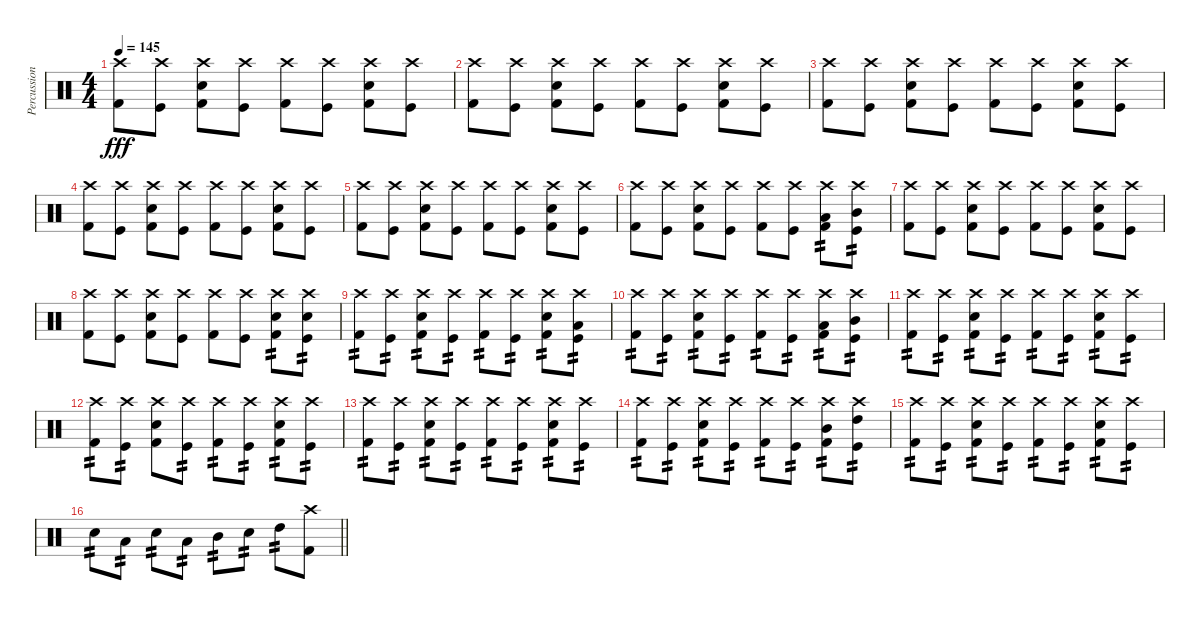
\track ("Percussion" "Percussion") {instrument percussion}
\staff {score}
\articulation defaults
\ts (4 4)
\tempo 145
\clef neutral
\ks c
("Crash high (hit)" "Kick (hit) 2").8{dy fff} ("Crash high (hit)" "Kick (hit)").8 ("Crash high (hit)" "Snare (hit) 2" "Kick (hit) 2").8 ("Crash high (hit)" "Kick (hit)").8 ("Crash high (hit)" "Kick (hit) 2").8 ("Crash high (hit)" "Kick (hit)").8 ("Crash high (hit)" "Snare (hit) 2" "Kick (hit) 2").8 ("Crash high (hit)" "Kick (hit)").8 |
("Crash high (hit)" "Kick (hit) 2").8 ("Crash high (hit)" "Kick (hit)").8 ("Crash high (hit)" "Snare (hit) 2" "Kick (hit) 2").8 ("Crash high (hit)" "Kick (hit)").8 ("Crash high (hit)" "Kick (hit) 2").8 ("Crash high (hit)" "Kick (hit)").8 ("Crash high (hit)" "Snare (hit) 2" "Kick (hit) 2").8 ("Crash high (hit)" "Kick (hit)").8 |
("Crash high (hit)" "Kick (hit) 2").8 ("Crash high (hit)" "Kick (hit)").8 ("Crash high (hit)" "Snare (hit) 2" "Kick (hit) 2").8 ("Crash high (hit)" "Kick (hit)").8 ("Crash high (hit)" "Kick (hit) 2").8 ("Crash high (hit)" "Kick (hit)").8 ("Crash high (hit)" "Snare (hit) 2" "Kick (hit) 2").8 ("Crash high (hit)" "Kick (hit)").8 |
("Crash high (hit)" "Kick (hit) 2").8 ("Crash high (hit)" "Kick (hit)").8 ("Crash high (hit)" "Snare (hit) 2" "Kick (hit) 2").8 ("Crash high (hit)" "Kick (hit)").8 ("Crash high (hit)" "Kick (hit) 2").8 ("Crash high (hit)" "Kick (hit)").8 ("Crash high (hit)" "Snare (hit) 2" "Kick (hit) 2").8 ("Crash high (hit)" "Kick (hit)").8 |
("Crash high (hit)" "Kick (hit) 2").8 ("Crash high (hit)" "Kick (hit)").8 ("Crash high (hit)" "Snare (hit) 2" "Kick (hit) 2").8 ("Crash high (hit)" "Kick (hit)").8 ("Crash high (hit)" "Kick (hit) 2").8 ("Crash high (hit)" "Kick (hit)").8 ("Crash high (hit)" "Snare (hit) 2" "Kick (hit) 2").8 ("Crash high (hit)" "Kick (hit)").8 |
("Crash high (hit)" "Kick (hit) 2").8 ("Crash high (hit)" "Kick (hit)").8 ("Crash high (hit)" "Snare (hit) 2" "Kick (hit) 2").8 ("Crash high (hit)" "Kick (hit)").8 ("Crash high (hit)" "Kick (hit) 2").8 ("Crash high (hit)" "Kick (hit)").8 ("Crash high (hit)" "Low Tom (hit)" "Kick (hit) 2").8{tp 2} ("Crash high (hit)" "Mid Tom (hit)" "Kick (hit)").8{tp 2} |
("Crash high (hit)" "Kick (hit) 2").8 ("Crash high (hit)" "Kick (hit)").8 ("Crash high (hit)" "Snare (hit) 2" "Kick (hit) 2").8 ("Crash high (hit)" "Kick (hit)").8 ("Crash high (hit)" "Kick (hit) 2").8 ("Crash high (hit)" "Kick (hit)").8 ("Crash high (hit)" "Snare (hit) 2" "Kick (hit) 2").8 ("Crash high (hit)" "Kick (hit)").8 |
("Crash high (hit)" "Kick (hit) 2").8 ("Crash high (hit)" "Kick (hit)").8 ("Crash high (hit)" "Snare (hit) 2" "Kick (hit) 2").8 ("Crash high (hit)" "Kick (hit)").8 ("Crash high (hit)" "Kick (hit) 2").8 ("Crash high (hit)" "Kick (hit)").8 ("Crash high (hit)" "Snare (hit) 2" "Kick (hit) 2").8{tp 2} ("Crash high (hit)" "Snare (hit) 2" "Kick (hit)").8{tp 2} |
("Crash high (hit)" "Kick (hit) 2").8{tp 2} ("Crash high (hit)" "Kick (hit)").8{tp 2} ("Crash high (hit)" "Snare (hit) 2" "Kick (hit) 2").8{tp 2} ("Crash high (hit)" "Kick (hit)").8{tp 2} ("Crash high (hit)" "Kick (hit) 2").8{tp 2} ("Crash high (hit)" "Kick (hit)").8{tp 2} ("Crash high (hit)" "Snare (hit) 2" "Kick (hit) 2").8{tp 2} ("Crash high (hit)" "Low Tom (hit)" "Kick (hit)").8{tp 2} |
("Crash high (hit)" "Kick (hit) 2").8{tp 2} ("Crash high (hit)" "Kick (hit)").8{tp 2} ("Crash high (hit)" "Snare (hit) 2" "Kick (hit) 2").8{tp 2} ("Crash high (hit)" "Kick (hit)").8{tp 2} ("Crash high (hit)" "Kick (hit) 2").8{tp 2} ("Crash high (hit)" "Kick (hit)").8{tp 2} ("Crash high (hit)" "Low Tom (hit)" "Kick (hit) 2").8{tp 2} ("Crash high (hit)" "Mid Tom (hit)" "Kick (hit)").8{tp 2} |
("Crash high (hit)" "Kick (hit) 2").8{tp 2} ("Crash high (hit)" "Kick (hit)").8{tp 2} ("Crash high (hit)" "Snare (hit) 2" "Kick (hit) 2").8{tp 2} ("Crash high (hit)" "Kick (hit)").8{tp 2} ("Crash high (hit)" "Kick (hit) 2").8{tp 2} ("Crash high (hit)" "Kick (hit)").8{tp 2} ("Crash high (hit)" "Snare (hit) 2" "Kick (hit) 2").8{tp 2} ("Crash high (hit)" "Kick (hit)").8{tp 2} |
("Crash high (hit)" "Kick (hit) 2").8{tp 2} ("Crash high (hit)" "Kick (hit)").8{tp 2} ("Crash high (hit)" "Snare (hit) 2" "Kick (hit) 2").8 ("Crash high (hit)" "Kick (hit)").8{tp 2} ("Crash high (hit)" "Kick (hit) 2").8{tp 2} ("Crash high (hit)" "Kick (hit)").8{tp 2} ("Crash high (hit)" "Snare (hit) 2" "Kick (hit) 2").8{tp 2} ("Crash high (hit)" "Kick (hit)").8{tp 2} |
("Crash high (hit)" "Kick (hit) 2").8{tp 2} ("Crash high (hit)" "Kick (hit)").8{tp 2} ("Crash high (hit)" "Snare (hit) 2" "Kick (hit) 2").8{tp 2} ("Crash high (hit)" "Kick (hit)").8{tp 2} ("Crash high (hit)" "Kick (hit) 2").8{tp 2} ("Crash high (hit)" "Kick (hit)").8{tp 2} ("Crash high (hit)" "Snare (hit) 2" "Kick (hit) 2").8{tp 2} ("Crash high (hit)" "Kick (hit)").8{tp 2} |
("Crash high (hit)" "Kick (hit) 2").8{tp 2} ("Crash high (hit)" "Kick (hit)").8{tp 2} ("Crash high (hit)" "Snare (hit) 2" "Kick (hit) 2").8{tp 2} ("Crash high (hit)" "Kick (hit)").8{tp 2} ("Crash high (hit)" "Kick (hit) 2").8{tp 2} ("Crash high (hit)" "Kick (hit)").8{tp 2} ("Crash high (hit)" "Mid Tom (hit)" "Kick (hit) 2").8{tp 2} ("Crash high (hit)" "High Tom (hit)" "Kick (hit)").8{tp 2} |
("Crash high (hit)" "Kick (hit) 2").8{tp 2} ("Crash high (hit)" "Kick (hit)").8{tp 2} ("Crash high (hit)" "Snare (hit) 2" "Kick (hit) 2").8{tp 2} ("Crash high (hit)" "Kick (hit)").8{tp 2} ("Crash high (hit)" "Kick (hit) 2").8{tp 2} ("Crash high (hit)" "Kick (hit)").8{tp 2} ("Crash high (hit)" "Snare (hit) 2" "Kick (hit) 2").8{tp 2} ("Crash high (hit)" "Kick (hit)").8{tp 2} |
\barLineRight lightlight "Snare (hit) 2".8{tp 2} "Low Tom (hit)".8{tp 2} "Snare (hit) 2".8{tp 2} "Low Tom (hit)".8{tp 2} "Mid Tom (hit)".8{tp 2} "Snare (hit) 2".8{tp 2} "High Tom (hit)".8{tp 2}
("Crash high (hit)" "Kick (hit) 2").8
